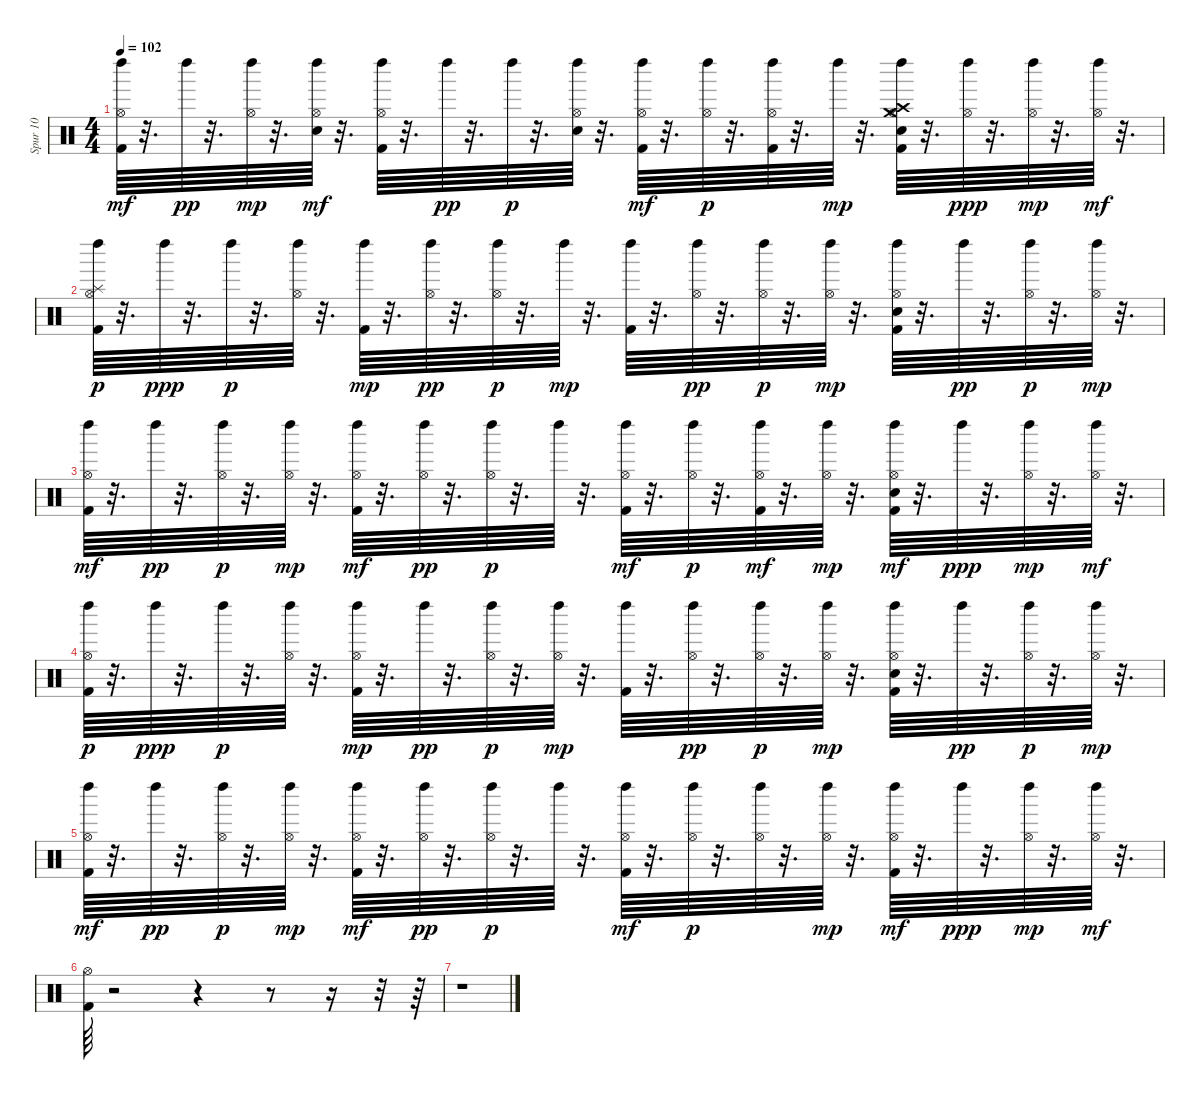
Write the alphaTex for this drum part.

\track ("Spur 10" "Spur 10") {instrument percussion}
\staff {score}
\articulation defaults
\ts (4 4)
\tempo 102
\clef neutral
\ks c
("Left Maraca (hit)" "Kick (hit) 2" "Hi-Hat (open)").64{dy mf} r.32{d} "Left Maraca (hit)".64{dy pp} r.32{d} ("Left Maraca (hit)" "Hi-Hat (open)").64{dy mp} r.32{d} ("Hi-Hat (open)" "Left Maraca (hit)" "Snare (hit) 2").64{dy mf} r.32{d} ("Left Maraca (hit)" "Kick (hit) 2" "Hi-Hat (open)").64 r.32{d} "Left Maraca (hit)".64{dy pp} r.32{d} "Left Maraca (hit)".64{dy p} r.32{d} ("Hi-Hat (open)" "Left Maraca (hit)" "Snare (hit) 2").64 r.32{d} ("Hi-Hat (open)" "Left Maraca (hit)" "Kick (hit) 2").64{dy mf} r.32{d} ("Hi-Hat (open)" "Left Maraca (hit)").64{dy p} r.32{d} ("Hi-Hat (open)" "Left Maraca (hit)" "Kick (hit) 2").64 r.32{d} "Left Maraca (hit)".64{dy mp} r.32{d} ("Hi-Hat (open)" "Left Maraca (hit)" "Snare (hit) 2" "Kick (hit) 2" "Crash high (hit)" "Crash medium (hit)").64 r.32{d} ("Hi-Hat (open)" "Left Maraca (hit)").64{dy ppp} r.32{d} ("Hi-Hat (open)" "Left Maraca (hit)").64{dy mp} r.32{d} ("Hi-Hat (open)" "Left Maraca (hit)").64{dy mf} r.32{d} |
("Hi-Hat (open)" "Splash (hit)" "Left Maraca (hit)" "Kick (hit) 2").64{dy p} r.32{d} "Left Maraca (hit)".64{dy ppp} r.32{d} "Left Maraca (hit)".64{dy p} r.32{d} ("Hi-Hat (open)" "Left Maraca (hit)").64 r.32{d} ("Kick (hit) 2" "Left Maraca (hit)").64{dy mp} r.32{d} ("Hi-Hat (open)" "Left Maraca (hit)").64{dy pp} r.32{d} ("Hi-Hat (open)" "Left Maraca (hit)").64{dy p} r.32{d} "Left Maraca (hit)".64{dy mp} r.32{d} ("Left Maraca (hit)" "Kick (hit) 2").64 r.32{d} ("Hi-Hat (open)" "Left Maraca (hit)").64{dy pp} r.32{d} ("Hi-Hat (open)" "Left Maraca (hit)").64{dy p} r.32{d} ("Hi-Hat (open)" "Left Maraca (hit)").64{dy mp} r.32{d} ("Snare (hit) 2" "Kick (hit) 2" "Left Maraca (hit)" "Hi-Hat (open)").64 r.32{d} "Left Maraca (hit)".64{dy pp} r.32{d} ("Hi-Hat (open)" "Left Maraca (hit)").64{dy p} r.32{d} ("Hi-Hat (open)" "Left Maraca (hit)").64{dy mp} r.32{d} |
("Kick (hit) 2" "Hi-Hat (open)" "Left Maraca (hit)").64{dy mf} r.32{d} "Left Maraca (hit)".64{dy pp} r.32{d} ("Hi-Hat (open)" "Left Maraca (hit)").64{dy p} r.32{d} ("Hi-Hat (open)" "Left Maraca (hit)").64{dy mp} r.32{d} ("Hi-Hat (open)" "Left Maraca (hit)" "Kick (hit) 2").64{dy mf} r.32{d} ("Hi-Hat (open)" "Left Maraca (hit)").64{dy pp} r.32{d} ("Hi-Hat (open)" "Left Maraca (hit)").64{dy p} r.32{d} "Left Maraca (hit)".64 r.32{d} ("Hi-Hat (open)" "Kick (hit) 2" "Left Maraca (hit)").64{dy mf} r.32{d} ("Hi-Hat (open)" "Left Maraca (hit)").64{dy p} r.32{d} ("Hi-Hat (open)" "Left Maraca (hit)" "Kick (hit) 2").64{dy mf} r.32{d} ("Hi-Hat (open)" "Left Maraca (hit)").64{dy mp} r.32{d} ("Snare (hit) 2" "Left Maraca (hit)" "Kick (hit) 2" "Hi-Hat (open)").64{dy mf} r.32{d} "Left Maraca (hit)".64{dy ppp} r.32{d} ("Hi-Hat (open)" "Left Maraca (hit)").64{dy mp} r.32{d} ("Hi-Hat (open)" "Left Maraca (hit)").64{dy mf} r.32{d} |
("Kick (hit) 2" "Hi-Hat (open)" "Left Maraca (hit)").64{dy p} r.32{d} "Left Maraca (hit)".64{dy ppp} r.32{d} "Left Maraca (hit)".64{dy p} r.32{d} ("Hi-Hat (open)" "Left Maraca (hit)").64 r.32{d} ("Hi-Hat (open)" "Left Maraca (hit)" "Kick (hit) 2").64{dy mp} r.32{d} "Left Maraca (hit)".64{dy pp} r.32{d} ("Hi-Hat (open)" "Left Maraca (hit)").64{dy p} r.32{d} ("Hi-Hat (open)" "Left Maraca (hit)").64{dy mp} r.32{d} ("Left Maraca (hit)" "Kick (hit) 2").64 r.32{d} ("Hi-Hat (open)" "Left Maraca (hit)").64{dy pp} r.32{d} ("Hi-Hat (open)" "Left Maraca (hit)").64{dy p} r.32{d} ("Hi-Hat (open)" "Left Maraca (hit)").64{dy mp} r.32{d} ("Snare (hit) 2" "Hi-Hat (open)" "Left Maraca (hit)" "Kick (hit) 2").64 r.32{d} "Left Maraca (hit)".64{dy pp} r.32{d} ("Hi-Hat (open)" "Left Maraca (hit)").64{dy p} r.32{d} ("Hi-Hat (open)" "Left Maraca (hit)").64{dy mp} r.32{d} |
("Kick (hit) 2" "Hi-Hat (open)" "Left Maraca (hit)").64{dy mf} r.32{d} "Left Maraca (hit)".64{dy pp} r.32{d} ("Hi-Hat (open)" "Left Maraca (hit)").64{dy p} r.32{d} ("Hi-Hat (open)" "Left Maraca (hit)").64{dy mp} r.32{d} ("Hi-Hat (open)" "Left Maraca (hit)" "Kick (hit) 2").64{dy mf} r.32{d} ("Hi-Hat (open)" "Left Maraca (hit)").64{dy pp} r.32{d} ("Hi-Hat (open)" "Left Maraca (hit)").64{dy p} r.32{d} "Left Maraca (hit)".64 r.32{d} ("Hi-Hat (open)" "Left Maraca (hit)" "Kick (hit) 2").64{dy mf} r.32{d} ("Hi-Hat (open)" "Left Maraca (hit)").64{dy p} r.32{d} ("Hi-Hat (open)" "Left Maraca (hit)").64 r.32{d} ("Hi-Hat (open)" "Left Maraca (hit)").64{dy mp} r.32{d} ("Hi-Hat (open)" "Left Maraca (hit)" "Kick (hit) 2").64{dy mf} r.32{d} "Left Maraca (hit)".64{dy ppp} r.32{d} ("Hi-Hat (open)" "Left Maraca (hit)").64{dy mp} r.32{d} ("Hi-Hat (open)" "Left Maraca (hit)").64{dy mf} r.32{d} |
("Kick (hit) 2" "Hi-Hat (open)").64 r.2 r.4 r.8 r.16 r.32 r.64 |
r.1
